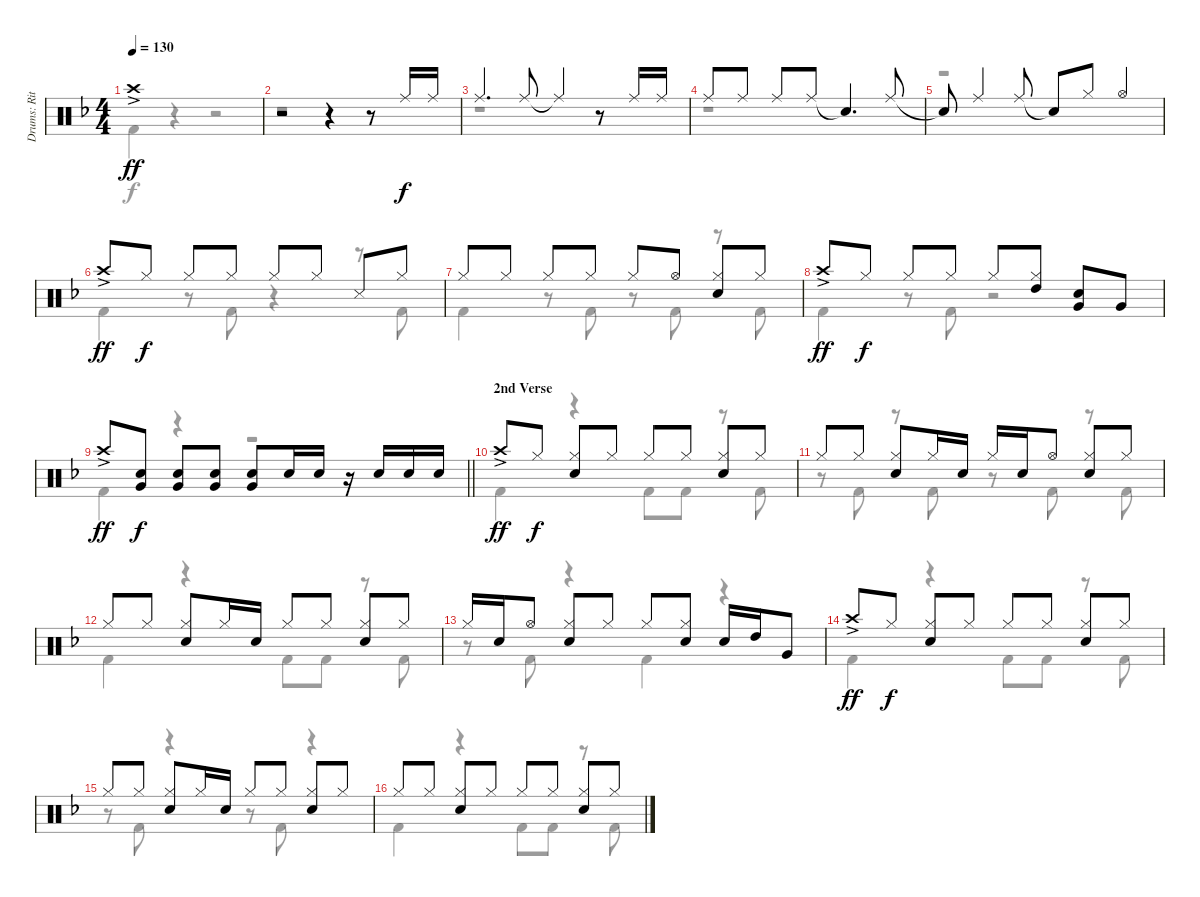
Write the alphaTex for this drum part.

\track ("Drums: Ritsu Tianaka" "Drums: Rit") {instrument percussion}
\staff {score}
\articulation defaults
\voice
\ts (4 4)
\tempo 130
\clef neutral
\ks f "Crash high (hit)"{ac}.1{dy ff}
|
r.2 r.4 r.8 "Ride (middle)".16{dy f} "Ride (middle)".16 |
"Ride (middle)".4{d} "Ride (middle)".8 "Ride (middle)"{t}.4 r.8 "Ride (middle)".16 "Ride (middle)".16 |
"Ride (middle)".8 "Ride (middle)".8 "Ride (middle)".8 "Ride (middle)".8 "Snare (hit)"{t}.4{d} "Ride (middle)".8 |
"Snare (hit)"{t}.8 "Ride (middle)".4 "Ride (middle)".8 "Snare (hit)"{t}.8 "Hi-Hat (closed)".8 "Hi-Hat (open)".4 |
"Crash high (hit)"{ac}.8{dy ff} "Hi-Hat (closed)".8{dy f} "Hi-Hat (closed)".8 "Hi-Hat (closed)".8 "Hi-Hat (closed)".8 "Hi-Hat (closed)".8 "Snare (side stick) 3".8 "Hi-Hat (closed)".8 |
"Hi-Hat (closed)".8 "Hi-Hat (closed)".8 "Hi-Hat (closed)".8 "Hi-Hat (closed)".8 "Hi-Hat (closed)".8 "Hi-Hat (open)".8 ("Hi-Hat (closed)" "Electric Snare (hit)").8 "Hi-Hat (closed)".8 |
"Crash high (hit)"{ac}.8{dy ff} "Hi-Hat (closed)".8{dy f} "Hi-Hat (closed)".8 "Hi-Hat (closed)".8 "Hi-Hat (closed)".8 ("Hi-Hat (closed)" "High Tom (hit)").8 ("Very Low Tom (hit)" "Electric Snare (hit)").8 "Very Low Tom (hit)".8 |
\barLineRight lightlight "Crash high (hit)"{ac}.8{dy ff}
("Very Low Tom (hit)" "Electric Snare (hit)").8{dy f} ("Very Low Tom (hit)" "Electric Snare (hit)").8 ("Very Low Tom (hit)" "Electric Snare (hit)").8 ("Very Low Tom (hit)" "Electric Snare (hit)").8 "Electric Snare (hit)".16 "Electric Snare (hit)".16 r.16 "Electric Snare (hit)".16 "Electric Snare (hit)".16 "Electric Snare (hit)".16 |
\section ("" "2nd Verse")
"Crash high (hit)"{ac}.8{dy ff} "Hi-Hat (closed)".8{dy f} ("Hi-Hat (closed)" "Electric Snare (hit)").8 "Hi-Hat (closed)".8 "Hi-Hat (closed)".8 "Hi-Hat (closed)".8 ("Hi-Hat (closed)" "Electric Snare (hit)").8 "Hi-Hat (closed)".8 |
"Hi-Hat (closed)".8 "Hi-Hat (closed)".8 ("Hi-Hat (closed)" "Electric Snare (hit)").8 "Hi-Hat (closed)".16 "Electric Snare (hit)".16 "Hi-Hat (closed)".16 "Electric Snare (hit)".16 "Hi-Hat (open)".8 ("Hi-Hat (closed)" "Electric Snare (hit)").8 "Hi-Hat (closed)".8 |
"Hi-Hat (closed)".8 "Hi-Hat (closed)".8 ("Hi-Hat (closed)" "Electric Snare (hit)").8 "Hi-Hat (closed)".16 "Electric Snare (hit)".16 "Hi-Hat (closed)".8 "Hi-Hat (closed)".8 ("Hi-Hat (closed)" "Electric Snare (hit)").8 "Hi-Hat (closed)".8 |
"Hi-Hat (closed)".16 "Electric Snare (hit)".16 "Hi-Hat (open)".8 ("Hi-Hat (closed)" "Electric Snare (hit)").8 "Hi-Hat (closed)".8 "Hi-Hat (closed)".8 ("Hi-Hat (closed)" "Electric Snare (hit)").8 "Electric Snare (hit)".16 "High Tom (hit)".16 "Very Low Tom (hit)".8 |
"Crash high (hit)"{ac}.8{dy ff} "Hi-Hat (closed)".8{dy f} ("Hi-Hat (closed)" "Electric Snare (hit)").8 "Hi-Hat (closed)".8 "Hi-Hat (closed)".8 "Hi-Hat (closed)".8 ("Hi-Hat (closed)" "Electric Snare (hit)").8 "Hi-Hat (closed)".8 |
"Hi-Hat (closed)".8 "Hi-Hat (closed)".8 ("Hi-Hat (closed)" "Electric Snare (hit)").8 "Hi-Hat (closed)".16 "Electric Snare (hit)".16 "Hi-Hat (closed)".8 "Hi-Hat (closed)".8 ("Hi-Hat (closed)" "Electric Snare (hit)").8 "Hi-Hat (closed)".8 |
"Hi-Hat (closed)".8 "Hi-Hat (closed)".8 ("Hi-Hat (closed)" "Electric Snare (hit)").8 "Hi-Hat (closed)".8 "Hi-Hat (closed)".8 "Hi-Hat (closed)".8 ("Hi-Hat (closed)" "Electric Snare (hit)").8 "Hi-Hat (closed)".8
\voice
\clef neutral
\ottava regular
\simile none
\ks f "Kick (hit) 2".4{dy f}
r.4 r.2 |
r.1 |
r.1 |
r.1 |
r.1 |
"Kick (hit) 2".4 r.8 "Kick (hit) 2".8 r.4 r.8 "Kick (hit) 2".8 |
"Kick (hit) 2".4 r.8 "Kick (hit) 2".8 r.8 "Kick (hit) 2".8 r.8 "Kick (hit) 2".8 |
"Kick (hit) 2".4 r.8 "Kick (hit) 2".8 r.2 |
\barLineRight lightlight "Kick (hit) 2".4
r.4 r.2 |
"Kick (hit) 2".4 r.4 "Kick (hit) 2".8 "Kick (hit) 2".8 r.8 "Kick (hit) 2".8 |
r.8 "Kick (hit) 2".8 r.8 "Kick (hit) 2".8 r.8 "Kick (hit) 2".8 r.8 "Kick (hit) 2".8 |
"Kick (hit) 2".4 r.4 "Kick (hit) 2".8 "Kick (hit) 2".8 r.8 "Kick (hit) 2".8 |
r.8 "Kick (hit) 2".8 r.4 "Kick (hit) 2".4 r.4 |
"Kick (hit) 2".4 r.4 "Kick (hit) 2".8 "Kick (hit) 2".8 r.8 "Kick (hit) 2".8 |
r.8 "Kick (hit) 2".8 r.4 r.8 "Kick (hit) 2".8 r.4 |
"Kick (hit) 2".4 r.4 "Kick (hit) 2".8 "Kick (hit) 2".8 r.8 "Kick (hit) 2".8
